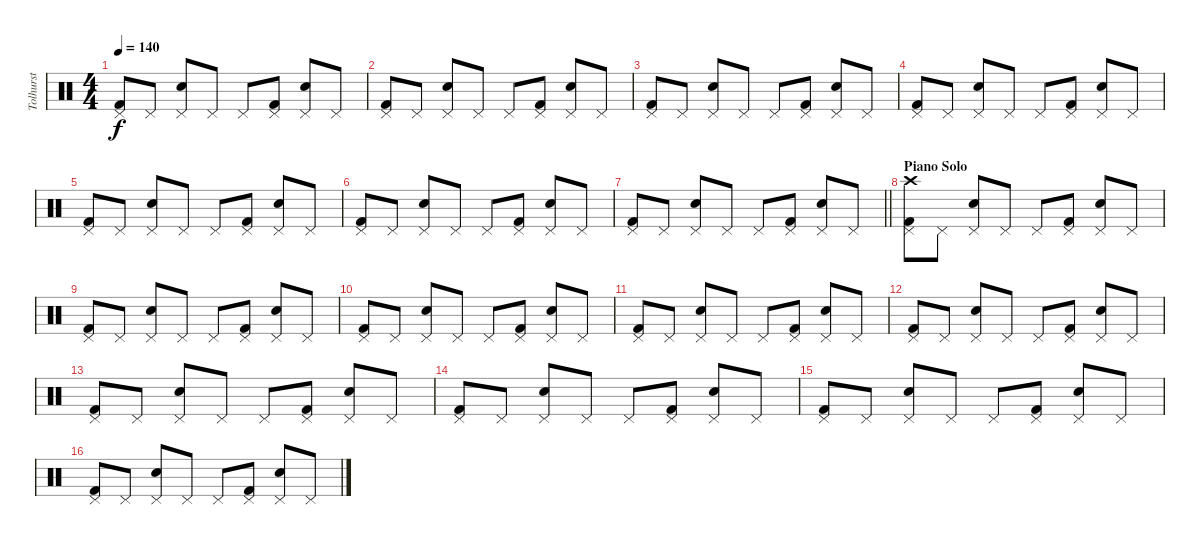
\track ("Tolhurst" "Tolhurst") {instrument percussion}
\staff {score}
\articulation defaults
\ts (4 4)
\tempo 140
\clef neutral
\ks c
("Kick (hit) 2" "Pedal Hi-Hat (hit)").8{dy f} "Pedal Hi-Hat (hit)".8 ("Snare (hit) 2" "Pedal Hi-Hat (hit)").8 "Pedal Hi-Hat (hit)".8 "Pedal Hi-Hat (hit)".8 ("Kick (hit) 2" "Pedal Hi-Hat (hit)").8 ("Snare (hit) 2" "Pedal Hi-Hat (hit)").8 "Pedal Hi-Hat (hit)".8 |
("Kick (hit) 2" "Pedal Hi-Hat (hit)").8 "Pedal Hi-Hat (hit)".8 ("Snare (hit) 2" "Pedal Hi-Hat (hit)").8 "Pedal Hi-Hat (hit)".8 "Pedal Hi-Hat (hit)".8 ("Kick (hit) 2" "Pedal Hi-Hat (hit)").8 ("Snare (hit) 2" "Pedal Hi-Hat (hit)").8 "Pedal Hi-Hat (hit)".8 |
("Kick (hit) 2" "Pedal Hi-Hat (hit)").8 "Pedal Hi-Hat (hit)".8 ("Snare (hit) 2" "Pedal Hi-Hat (hit)").8 "Pedal Hi-Hat (hit)".8 "Pedal Hi-Hat (hit)".8 ("Kick (hit) 2" "Pedal Hi-Hat (hit)").8 ("Snare (hit) 2" "Pedal Hi-Hat (hit)").8 "Pedal Hi-Hat (hit)".8 |
("Kick (hit) 2" "Pedal Hi-Hat (hit)").8 "Pedal Hi-Hat (hit)".8 ("Snare (hit) 2" "Pedal Hi-Hat (hit)").8 "Pedal Hi-Hat (hit)".8 "Pedal Hi-Hat (hit)".8 ("Kick (hit) 2" "Pedal Hi-Hat (hit)").8 ("Snare (hit) 2" "Pedal Hi-Hat (hit)").8 "Pedal Hi-Hat (hit)".8 |
("Kick (hit) 2" "Pedal Hi-Hat (hit)").8 "Pedal Hi-Hat (hit)".8 ("Snare (hit) 2" "Pedal Hi-Hat (hit)").8 "Pedal Hi-Hat (hit)".8 "Pedal Hi-Hat (hit)".8 ("Kick (hit) 2" "Pedal Hi-Hat (hit)").8 ("Snare (hit) 2" "Pedal Hi-Hat (hit)").8 "Pedal Hi-Hat (hit)".8 |
("Kick (hit) 2" "Pedal Hi-Hat (hit)").8 "Pedal Hi-Hat (hit)".8 ("Snare (hit) 2" "Pedal Hi-Hat (hit)").8 "Pedal Hi-Hat (hit)".8 "Pedal Hi-Hat (hit)".8 ("Kick (hit) 2" "Pedal Hi-Hat (hit)").8 ("Snare (hit) 2" "Pedal Hi-Hat (hit)").8 "Pedal Hi-Hat (hit)".8 |
\barLineRight lightlight
("Kick (hit) 2" "Pedal Hi-Hat (hit)").8 "Pedal Hi-Hat (hit)".8 ("Snare (hit) 2" "Pedal Hi-Hat (hit)").8 "Pedal Hi-Hat (hit)".8 "Pedal Hi-Hat (hit)".8 ("Kick (hit) 2" "Pedal Hi-Hat (hit)").8 ("Snare (hit) 2" "Pedal Hi-Hat (hit)").8 "Pedal Hi-Hat (hit)".8 |
\section ("" "Piano Solo")
("Kick (hit) 2" "Pedal Hi-Hat (hit)" "Crash high (hit)").8 "Pedal Hi-Hat (hit)".8 ("Snare (hit) 2" "Pedal Hi-Hat (hit)").8 "Pedal Hi-Hat (hit)".8 "Pedal Hi-Hat (hit)".8 ("Kick (hit) 2" "Pedal Hi-Hat (hit)").8 ("Snare (hit) 2" "Pedal Hi-Hat (hit)").8 "Pedal Hi-Hat (hit)".8 |
("Kick (hit) 2" "Pedal Hi-Hat (hit)").8 "Pedal Hi-Hat (hit)".8 ("Snare (hit) 2" "Pedal Hi-Hat (hit)").8 "Pedal Hi-Hat (hit)".8 "Pedal Hi-Hat (hit)".8 ("Kick (hit) 2" "Pedal Hi-Hat (hit)").8 ("Snare (hit) 2" "Pedal Hi-Hat (hit)").8 "Pedal Hi-Hat (hit)".8 |
("Kick (hit) 2" "Pedal Hi-Hat (hit)").8 "Pedal Hi-Hat (hit)".8 ("Snare (hit) 2" "Pedal Hi-Hat (hit)").8 "Pedal Hi-Hat (hit)".8 "Pedal Hi-Hat (hit)".8 ("Kick (hit) 2" "Pedal Hi-Hat (hit)").8 ("Snare (hit) 2" "Pedal Hi-Hat (hit)").8 "Pedal Hi-Hat (hit)".8 |
("Kick (hit) 2" "Pedal Hi-Hat (hit)").8 "Pedal Hi-Hat (hit)".8 ("Snare (hit) 2" "Pedal Hi-Hat (hit)").8 "Pedal Hi-Hat (hit)".8 "Pedal Hi-Hat (hit)".8 ("Kick (hit) 2" "Pedal Hi-Hat (hit)").8 ("Snare (hit) 2" "Pedal Hi-Hat (hit)").8 "Pedal Hi-Hat (hit)".8 |
("Kick (hit) 2" "Pedal Hi-Hat (hit)").8 "Pedal Hi-Hat (hit)".8 ("Snare (hit) 2" "Pedal Hi-Hat (hit)").8 "Pedal Hi-Hat (hit)".8 "Pedal Hi-Hat (hit)".8 ("Kick (hit) 2" "Pedal Hi-Hat (hit)").8 ("Snare (hit) 2" "Pedal Hi-Hat (hit)").8 "Pedal Hi-Hat (hit)".8 |
("Kick (hit) 2" "Pedal Hi-Hat (hit)").8 "Pedal Hi-Hat (hit)".8 ("Snare (hit) 2" "Pedal Hi-Hat (hit)").8 "Pedal Hi-Hat (hit)".8 "Pedal Hi-Hat (hit)".8 ("Kick (hit) 2" "Pedal Hi-Hat (hit)").8 ("Snare (hit) 2" "Pedal Hi-Hat (hit)").8 "Pedal Hi-Hat (hit)".8 |
("Kick (hit) 2" "Pedal Hi-Hat (hit)").8 "Pedal Hi-Hat (hit)".8 ("Snare (hit) 2" "Pedal Hi-Hat (hit)").8 "Pedal Hi-Hat (hit)".8 "Pedal Hi-Hat (hit)".8 ("Kick (hit) 2" "Pedal Hi-Hat (hit)").8 ("Snare (hit) 2" "Pedal Hi-Hat (hit)").8 "Pedal Hi-Hat (hit)".8 |
("Kick (hit) 2" "Pedal Hi-Hat (hit)").8 "Pedal Hi-Hat (hit)".8 ("Snare (hit) 2" "Pedal Hi-Hat (hit)").8 "Pedal Hi-Hat (hit)".8 "Pedal Hi-Hat (hit)".8 ("Kick (hit) 2" "Pedal Hi-Hat (hit)").8 ("Snare (hit) 2" "Pedal Hi-Hat (hit)").8 "Pedal Hi-Hat (hit)".8 |
("Kick (hit) 2" "Pedal Hi-Hat (hit)").8 "Pedal Hi-Hat (hit)".8 ("Snare (hit) 2" "Pedal Hi-Hat (hit)").8 "Pedal Hi-Hat (hit)".8 "Pedal Hi-Hat (hit)".8 ("Kick (hit) 2" "Pedal Hi-Hat (hit)").8 ("Snare (hit) 2" "Pedal Hi-Hat (hit)").8 "Pedal Hi-Hat (hit)".8
